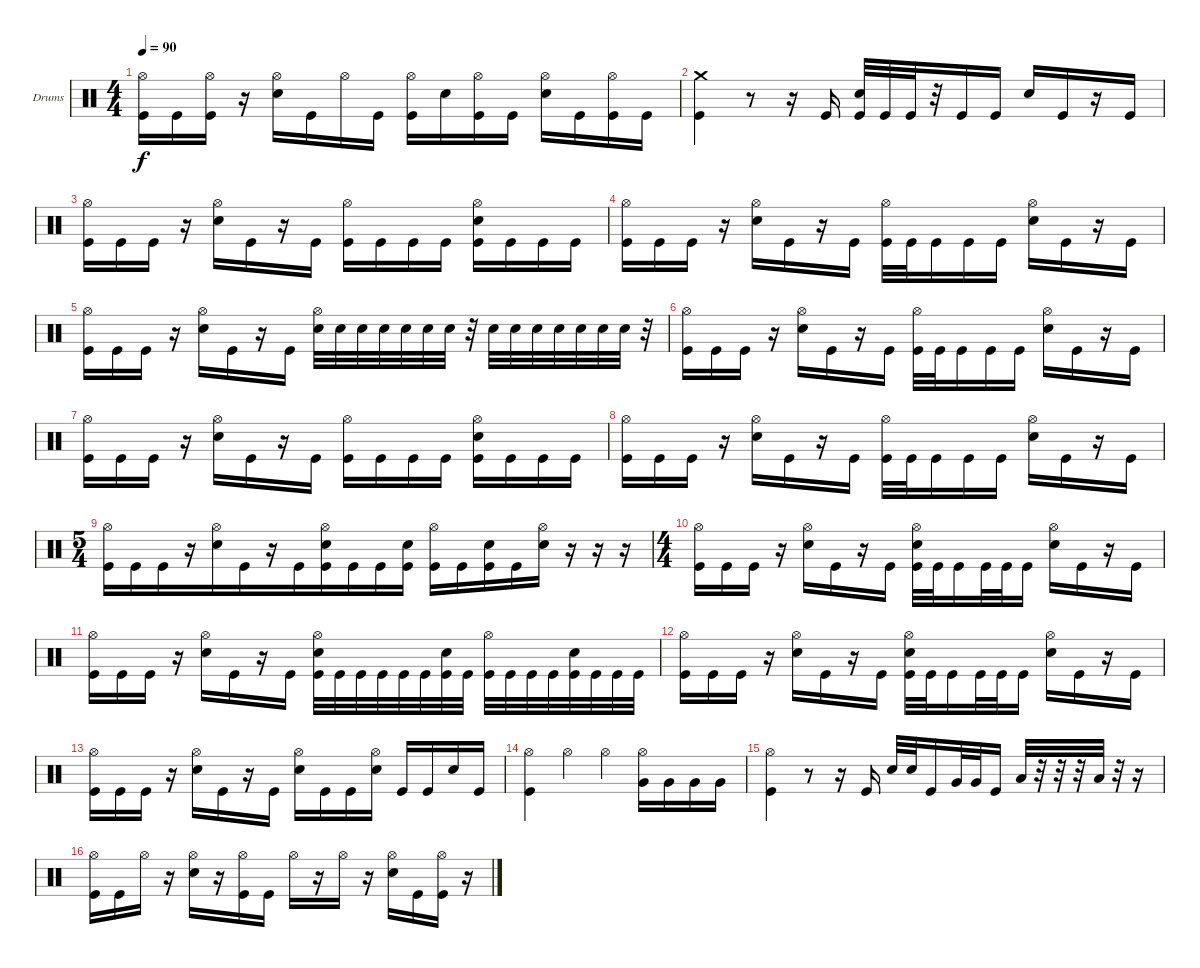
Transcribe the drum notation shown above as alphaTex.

\bracketExtendMode groupsimilarinstruments
\firstSystemTrackNameOrientation horizontal
\otherSystemsTrackNameOrientation horizontal
\track ("Drumkit" "Drums") {instrument percussion}
\staff {score}
\articulation defaults
\ts (4 4)
\tempo 90
\clef neutral
\ks c
("Hi-Hat (open)" "Kick (hit)").16{dy f} "Kick (hit)".16 ("Hi-Hat (open)" "Kick (hit)").16 r.16 ("Hi-Hat (open)" "Snare (hit) 2").16 "Kick (hit)".16 "Hi-Hat (open)".16 "Kick (hit)".16 ("Hi-Hat (open)" "Kick (hit)").16 "Snare (hit) 2".16 ("Hi-Hat (open)" "Kick (hit)").16 "Kick (hit)".16 ("Hi-Hat (open)" "Snare (hit) 2").16 "Kick (hit)".16 ("Hi-Hat (open)" "Kick (hit)").16 "Kick (hit)".16 |
("Crash medium (hit)" "Kick (hit)").4 r.8 r.16 "Kick (hit)".16 ("Snare (hit) 2" "Kick (hit)").32 "Kick (hit)".32 "Kick (hit)".32 r.32 "Kick (hit)".16 "Kick (hit)".16 "Snare (hit) 2".16 "Kick (hit)".16 r.16 "Kick (hit)".16 |
("Hi-Hat (open)" "Kick (hit)").16 "Kick (hit)".16 "Kick (hit)".16 r.16 ("Hi-Hat (open)" "Snare (hit) 2").16 "Kick (hit)".16 r.16 "Kick (hit)".16 ("Hi-Hat (open)" "Kick (hit)").16 "Kick (hit)".16 "Kick (hit)".16 "Kick (hit)".16 ("Hi-Hat (open)" "Snare (hit) 2" "Kick (hit)").16 "Kick (hit)".16 "Kick (hit)".16 "Kick (hit)".16 |
("Hi-Hat (open)" "Kick (hit)").16 "Kick (hit)".16 "Kick (hit)".16 r.16 ("Hi-Hat (open)" "Snare (hit) 2").16 "Kick (hit)".16 r.16 "Kick (hit)".16 ("Hi-Hat (open)" "Kick (hit)").32 "Kick (hit)".32 "Kick (hit)".16 "Kick (hit)".16 "Kick (hit)".16 ("Hi-Hat (open)" "Snare (hit) 2").16 "Kick (hit)".16 r.16 "Kick (hit)".16 |
("Hi-Hat (open)" "Kick (hit)").16 "Kick (hit)".16 "Kick (hit)".16 r.16 ("Hi-Hat (open)" "Snare (hit) 2").16 "Kick (hit)".16 r.16 "Kick (hit)".16 ("Hi-Hat (open)" "Snare (hit) 2").32 "Snare (hit) 2".32 "Snare (hit) 2".32 "Snare (hit) 2".32 "Snare (hit) 2".32 "Snare (hit) 2".32 "Snare (hit) 2".32 r.32 "Snare (hit) 2".32 "Snare (hit) 2".32 "Snare (hit) 2".32 "Snare (hit) 2".32 "Snare (hit) 2".32 "Snare (hit) 2".32 "Snare (hit) 2".32 r.32 |
("Hi-Hat (open)" "Kick (hit)").16 "Kick (hit)".16 "Kick (hit)".16 r.16 ("Hi-Hat (open)" "Snare (hit) 2").16 "Kick (hit)".16 r.16 "Kick (hit)".16 ("Hi-Hat (open)" "Kick (hit)").32 "Kick (hit)".32 "Kick (hit)".16 "Kick (hit)".16 "Kick (hit)".16 ("Hi-Hat (open)" "Snare (hit) 2").16 "Kick (hit)".16 r.16 "Kick (hit)".16 |
("Hi-Hat (open)" "Kick (hit)").16 "Kick (hit)".16 "Kick (hit)".16 r.16 ("Hi-Hat (open)" "Snare (hit) 2").16 "Kick (hit)".16 r.16 "Kick (hit)".16 ("Hi-Hat (open)" "Kick (hit)").16 "Kick (hit)".16 "Kick (hit)".16 "Kick (hit)".16 ("Hi-Hat (open)" "Snare (hit) 2" "Kick (hit)").16 "Kick (hit)".16 "Kick (hit)".16 "Kick (hit)".16 |
("Hi-Hat (open)" "Kick (hit)").16 "Kick (hit)".16 "Kick (hit)".16 r.16 ("Hi-Hat (open)" "Snare (hit) 2").16 "Kick (hit)".16 r.16 "Kick (hit)".16 ("Hi-Hat (open)" "Kick (hit)").32 "Kick (hit)".32 "Kick (hit)".16 "Kick (hit)".16 "Kick (hit)".16 ("Hi-Hat (open)" "Snare (hit) 2").16 "Kick (hit)".16 r.16 "Kick (hit)".16 |
\ts (5 4)
\beaming (8 6 4)
("Hi-Hat (open)" "Kick (hit)").16 "Kick (hit)".16 "Kick (hit)".16 r.16 ("Hi-Hat (open)" "Snare (hit) 2").16 "Kick (hit)".16 r.16 "Kick (hit)".16 ("Hi-Hat (open)" "Snare (hit) 2" "Kick (hit)").16 "Kick (hit)".16 "Kick (hit)".16 ("Snare (hit) 2" "Kick (hit)").16 ("Hi-Hat (open)" "Kick (hit)").16 "Kick (hit)".16 ("Snare (hit) 2" "Kick (hit)").16 "Kick (hit)".16 ("Hi-Hat (open)" "Snare (hit) 2").16 r.16 r.16 r.16 |
\ts (4 4)
\beaming (8 2 2 2 2)
("Hi-Hat (open)" "Kick (hit)").16 "Kick (hit)".16 "Kick (hit)".16 r.16 ("Hi-Hat (open)" "Snare (hit) 2").16 "Kick (hit)".16 r.16 "Kick (hit)".16 ("Hi-Hat (open)" "Snare (hit) 2" "Kick (hit)").32 "Kick (hit)".32 "Kick (hit)".16 "Kick (hit)".32 "Kick (hit)".32 "Kick (hit)".16 ("Hi-Hat (open)" "Snare (hit) 2").16 "Kick (hit)".16 r.16 "Kick (hit)".16 |
("Hi-Hat (open)" "Kick (hit)").16 "Kick (hit)".16 "Kick (hit)".16 r.16 ("Hi-Hat (open)" "Snare (hit) 2").16 "Kick (hit)".16 r.16 "Kick (hit)".16 ("Hi-Hat (open)" "Snare (hit) 2" "Kick (hit)").32 "Kick (hit)".32 "Kick (hit)".32 "Kick (hit)".32 "Kick (hit)".32 "Kick (hit)".32 ("Snare (hit) 2" "Kick (hit)").32 "Kick (hit)".32 ("Hi-Hat (open)" "Kick (hit)").32 "Kick (hit)".32 "Kick (hit)".32 "Kick (hit)".32 ("Snare (hit) 2" "Kick (hit)").32 "Kick (hit)".32 "Kick (hit)".32 "Kick (hit)".32 |
("Hi-Hat (open)" "Kick (hit)").16 "Kick (hit)".16 "Kick (hit)".16 r.16 ("Hi-Hat (open)" "Snare (hit) 2").16 "Kick (hit)".16 r.16 "Kick (hit)".16 ("Hi-Hat (open)" "Snare (hit) 2" "Kick (hit)").32 "Kick (hit)".32 "Kick (hit)".16 "Kick (hit)".32 "Kick (hit)".32 "Kick (hit)".16 ("Hi-Hat (open)" "Snare (hit) 2").16 "Kick (hit)".16 r.16 "Kick (hit)".16 |
("Hi-Hat (open)" "Kick (hit)").16 "Kick (hit)".16 "Kick (hit)".16 r.16 ("Hi-Hat (open)" "Snare (hit) 2").16 "Kick (hit)".16 r.16 "Kick (hit)".16 ("Hi-Hat (open)" "Snare (hit) 2").16 "Kick (hit)".16 "Kick (hit)".16 ("Hi-Hat (open)" "Snare (hit) 2").16 "Kick (hit)".16 "Kick (hit)".16 "Snare (hit) 2".16 "Kick (hit)".16 |
("Hi-Hat (open)" "Kick (hit)").4 "Hi-Hat (open)".4 "Hi-Hat (open)".4 ("Hi-Hat (open)" "Very Low Tom (hit)").16 "Very Low Tom (hit)".16 "Very Low Tom (hit)".16 "Very Low Tom (hit)".16 |
("Hi-Hat (open)" "Kick (hit)").4 r.8 r.16 "Kick (hit)".16 "Snare (hit) 2".32 "Snare (hit) 2".32 "Kick (hit)".16 "Very Low Tom (hit)".32 "Very Low Tom (hit)".32 "Kick (hit)".16 "Low Tom (hit)".32 r.32 r.32 r.32 "Low Tom (hit)".32 r.32 r.16 |
("Hi-Hat (open)" "Kick (hit)").16 "Kick (hit)".16 "Hi-Hat (open)".16 r.16 ("Hi-Hat (open)" "Snare (hit) 2").16 r.16 ("Hi-Hat (open)" "Kick (hit)").16 "Kick (hit)".16 "Hi-Hat (open)".16 r.16 "Hi-Hat (open)".16 r.16 ("Hi-Hat (open)" "Snare (hit) 2").16 "Kick (hit)".16 ("Hi-Hat (open)" "Kick (hit)").16 r.16
